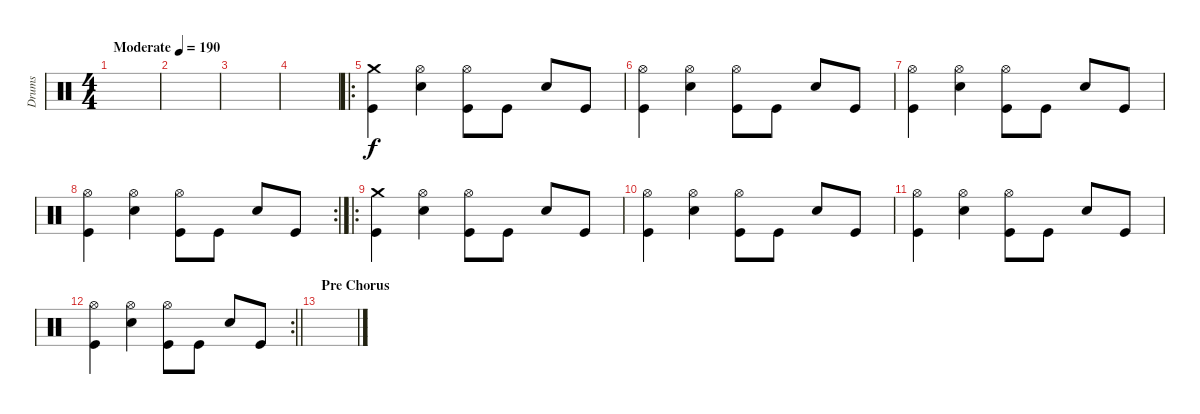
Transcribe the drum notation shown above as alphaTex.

\track ("Drums" "Drums") {instrument percussion}
\staff {score}
\articulation defaults
\ts (4 4)
\tempo (190 "Moderate")
\clef neutral
\ks c
|
|
|
|
\ro
("Crash medium (hit)" "Kick (hit)").4 ("Hi-Hat (open)" "Snare (hit) 2").4 ("Hi-Hat (open)" "Kick (hit)").8 "Kick (hit)".8 "Snare (hit) 2".8 "Kick (hit)".8 |
("Hi-Hat (open)" "Kick (hit)").4 ("Hi-Hat (open)" "Snare (hit) 2").4 ("Hi-Hat (open)" "Kick (hit)").8 "Kick (hit)".8 "Snare (hit) 2".8 "Kick (hit)".8 |
("Hi-Hat (open)" "Kick (hit)").4 ("Hi-Hat (open)" "Snare (hit) 2").4 ("Hi-Hat (open)" "Kick (hit)").8 "Kick (hit)".8 "Snare (hit) 2".8 "Kick (hit)".8 |
\rc 2
("Hi-Hat (open)" "Kick (hit)").4 ("Hi-Hat (open)" "Snare (hit) 2").4 ("Hi-Hat (open)" "Kick (hit)").8 "Kick (hit)".8 "Snare (hit) 2".8 "Kick (hit)".8 |
\ro
("Crash medium (hit)" "Kick (hit)").4 ("Hi-Hat (open)" "Snare (hit) 2").4 ("Hi-Hat (open)" "Kick (hit)").8 "Kick (hit)".8 "Snare (hit) 2".8 "Kick (hit)".8 |
("Hi-Hat (open)" "Kick (hit)").4 ("Hi-Hat (open)" "Snare (hit) 2").4 ("Hi-Hat (open)" "Kick (hit)").8 "Kick (hit)".8 "Snare (hit) 2".8 "Kick (hit)".8 |
("Hi-Hat (open)" "Kick (hit)").4 ("Hi-Hat (open)" "Snare (hit) 2").4 ("Hi-Hat (open)" "Kick (hit)").8 "Kick (hit)".8 "Snare (hit) 2".8 "Kick (hit)".8 |
\rc 2
\barLineRight lightlight
("Hi-Hat (open)" "Kick (hit)").4 ("Hi-Hat (open)" "Snare (hit) 2").4 ("Hi-Hat (open)" "Kick (hit)").8 "Kick (hit)".8 "Snare (hit) 2".8 "Kick (hit)".8 |
\section ("" "Pre Chorus")
